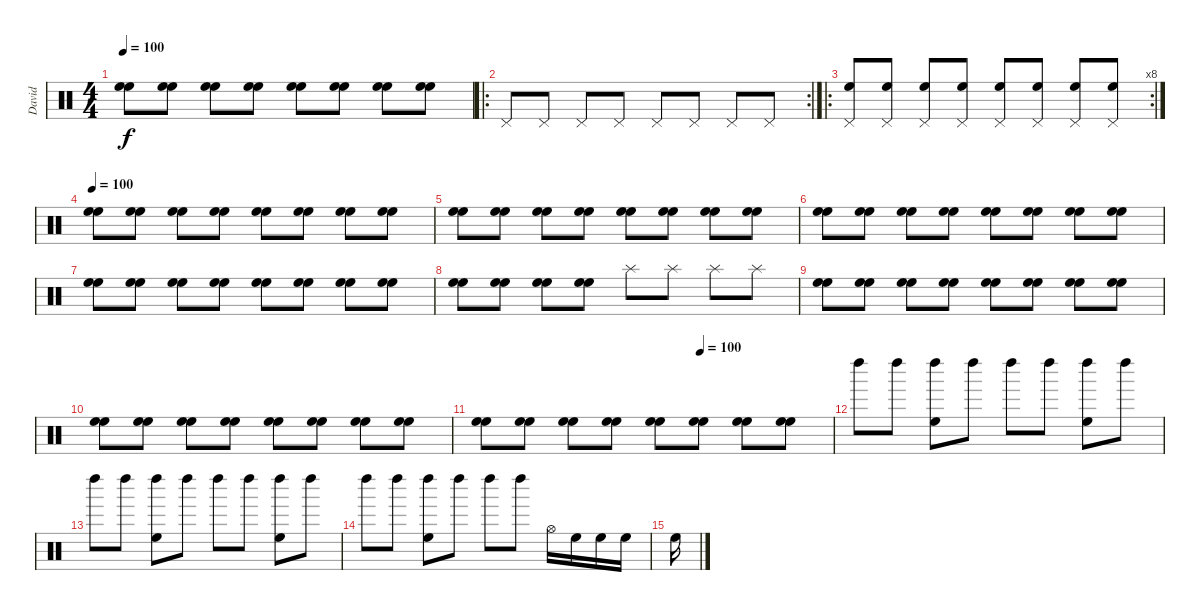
\track ("David" "David") {instrument percussion}
\staff {score}
\articulation defaults
\ts (4 4)
\tempo 100
\clef neutral
\ks c
("High Floor Tom (hit)" "High Floor Tom (hit)").8{dy f} ("High Floor Tom (hit)" "High Floor Tom (hit)").8 ("High Floor Tom (hit)" "High Floor Tom (hit)").8 ("High Floor Tom (hit)" "High Floor Tom (hit)").8 ("High Floor Tom (hit)" "High Floor Tom (hit)").8 ("High Floor Tom (hit)" "High Floor Tom (hit)").8 ("High Floor Tom (hit)" "High Floor Tom (hit)").8 ("High Floor Tom (hit)" "High Floor Tom (hit)").8 |
\ro
\rc 2 "Pedal Hi-Hat (hit)".8 "Pedal Hi-Hat (hit)".8 "Pedal Hi-Hat (hit)".8 "Pedal Hi-Hat (hit)".8 "Pedal Hi-Hat (hit)".8 "Pedal Hi-Hat (hit)".8 "Pedal Hi-Hat (hit)".8 "Pedal Hi-Hat (hit)".8
|
\ro
\rc 8
("Pedal Hi-Hat (hit)" "High Floor Tom (hit)").8 ("Pedal Hi-Hat (hit)" "High Floor Tom (hit)").8 ("Pedal Hi-Hat (hit)" "High Floor Tom (hit)").8 ("Pedal Hi-Hat (hit)" "High Floor Tom (hit)").8 ("Pedal Hi-Hat (hit)" "High Floor Tom (hit)").8 ("Pedal Hi-Hat (hit)" "High Floor Tom (hit)").8 ("Pedal Hi-Hat (hit)" "High Floor Tom (hit)").8 ("Pedal Hi-Hat (hit)" "High Floor Tom (hit)").8 |
\tempo 100
("High Floor Tom (hit)" "High Floor Tom (hit)").8 ("High Floor Tom (hit)" "High Floor Tom (hit)").8 ("High Floor Tom (hit)" "High Floor Tom (hit)").8 ("High Floor Tom (hit)" "High Floor Tom (hit)").8 ("High Floor Tom (hit)" "High Floor Tom (hit)").8 ("High Floor Tom (hit)" "High Floor Tom (hit)").8 ("High Floor Tom (hit)" "High Floor Tom (hit)").8 ("High Floor Tom (hit)" "High Floor Tom (hit)").8 |
("High Floor Tom (hit)" "High Floor Tom (hit)").8 ("High Floor Tom (hit)" "High Floor Tom (hit)").8 ("High Floor Tom (hit)" "High Floor Tom (hit)").8 ("High Floor Tom (hit)" "High Floor Tom (hit)").8 ("High Floor Tom (hit)" "High Floor Tom (hit)").8 ("High Floor Tom (hit)" "High Floor Tom (hit)").8 ("High Floor Tom (hit)" "High Floor Tom (hit)").8 ("High Floor Tom (hit)" "High Floor Tom (hit)").8 |
("High Floor Tom (hit)" "High Floor Tom (hit)").8 ("High Floor Tom (hit)" "High Floor Tom (hit)").8 ("High Floor Tom (hit)" "High Floor Tom (hit)").8 ("High Floor Tom (hit)" "High Floor Tom (hit)").8 ("High Floor Tom (hit)" "High Floor Tom (hit)").8 ("High Floor Tom (hit)" "High Floor Tom (hit)").8 ("High Floor Tom (hit)" "High Floor Tom (hit)").8 ("High Floor Tom (hit)" "High Floor Tom (hit)").8 |
("High Floor Tom (hit)" "High Floor Tom (hit)").8 ("High Floor Tom (hit)" "High Floor Tom (hit)").8 ("High Floor Tom (hit)" "High Floor Tom (hit)").8 ("High Floor Tom (hit)" "High Floor Tom (hit)").8 ("High Floor Tom (hit)" "High Floor Tom (hit)").8 ("High Floor Tom (hit)" "High Floor Tom (hit)").8 ("High Floor Tom (hit)" "High Floor Tom (hit)").8 ("High Floor Tom (hit)" "High Floor Tom (hit)").8 |
("High Floor Tom (hit)" "High Floor Tom (hit)").8 ("High Floor Tom (hit)" "High Floor Tom (hit)").8 ("High Floor Tom (hit)" "High Floor Tom (hit)").8 ("High Floor Tom (hit)" "High Floor Tom (hit)").8 "Splash (hit)".8 "Splash (hit)".8 "Splash (hit)".8 "Splash (hit)".8 |
("High Floor Tom (hit)" "High Floor Tom (hit)").8 ("High Floor Tom (hit)" "High Floor Tom (hit)").8 ("High Floor Tom (hit)" "High Floor Tom (hit)").8 ("High Floor Tom (hit)" "High Floor Tom (hit)").8 ("High Floor Tom (hit)" "High Floor Tom (hit)").8 ("High Floor Tom (hit)" "High Floor Tom (hit)").8 ("High Floor Tom (hit)" "High Floor Tom (hit)").8 ("High Floor Tom (hit)" "High Floor Tom (hit)").8 |
("High Floor Tom (hit)" "High Floor Tom (hit)").8 ("High Floor Tom (hit)" "High Floor Tom (hit)").8 ("High Floor Tom (hit)" "High Floor Tom (hit)").8 ("High Floor Tom (hit)" "High Floor Tom (hit)").8 ("High Floor Tom (hit)" "High Floor Tom (hit)").8 ("High Floor Tom (hit)" "High Floor Tom (hit)").8 ("High Floor Tom (hit)" "High Floor Tom (hit)").8 ("High Floor Tom (hit)" "High Floor Tom (hit)").8 |
\tempo (100 0.625)
("High Floor Tom (hit)" "High Floor Tom (hit)").8 ("High Floor Tom (hit)" "High Floor Tom (hit)").8 ("High Floor Tom (hit)" "High Floor Tom (hit)").8 ("High Floor Tom (hit)" "High Floor Tom (hit)").8 ("High Floor Tom (hit)" "High Floor Tom (hit)").8 ("High Floor Tom (hit)" "High Floor Tom (hit)").8 ("High Floor Tom (hit)" "High Floor Tom (hit)").8 ("High Floor Tom (hit)" "High Floor Tom (hit)").8 |
"Left Maraca (hit)".8 "Left Maraca (hit)".8 ("Left Maraca (hit)" "High Floor Tom (hit)").8 "Left Maraca (hit)".8 "Left Maraca (hit)".8 "Left Maraca (hit)".8 ("Left Maraca (hit)" "High Floor Tom (hit)").8 "Left Maraca (hit)".8 |
"Left Maraca (hit)".8 "Left Maraca (hit)".8 ("Left Maraca (hit)" "High Floor Tom (hit)").8 "Left Maraca (hit)".8 "Left Maraca (hit)".8 "Left Maraca (hit)".8 ("Left Maraca (hit)" "High Floor Tom (hit)").8 "Left Maraca (hit)".8 |
"Left Maraca (hit)".8 "Left Maraca (hit)".8 ("Left Maraca (hit)" "High Floor Tom (hit)").8 "Left Maraca (hit)".8 "Left Maraca (hit)".8 "Left Maraca (hit)".8 "Hi-Hat (open)".16 "High Floor Tom (hit)".16 "High Floor Tom (hit)".16 "High Floor Tom (hit)".16 |
"High Floor Tom (hit)".16
